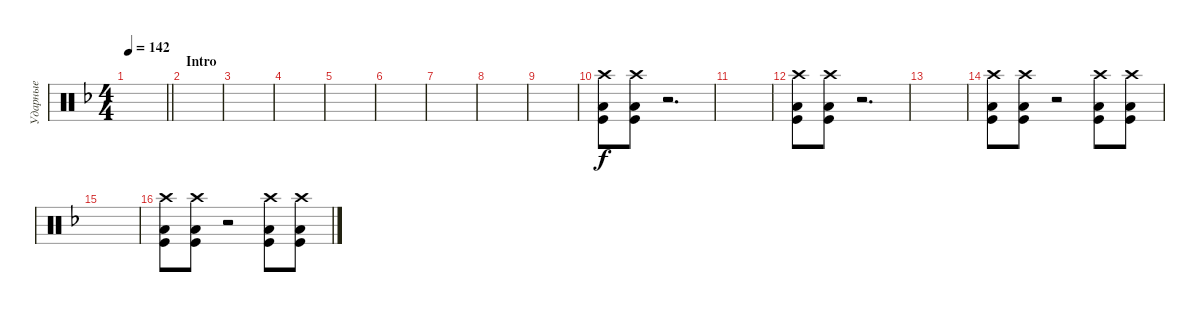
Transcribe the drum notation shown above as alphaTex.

\track ("Ударные" "Ударные") {instrument percussion}
\staff {score}
\articulation defaults
\ts (4 4)
\tempo 142
\clef neutral
\barLineRight lightlight
\ks dminor
|
\section ("" "Intro")
|
|
|
|
|
|
|
|
("Kick (hit)" "Low Floor Tom (hit)" "Crash high (hit)").8 ("Kick (hit)" "Low Floor Tom (hit)" "Crash high (hit)").8 r.2{d} |
|
("Kick (hit)" "Low Floor Tom (hit)" "Crash high (hit)").8 ("Kick (hit)" "Low Floor Tom (hit)" "Crash high (hit)").8 r.2{d} |
|
("Kick (hit)" "Low Floor Tom (hit)" "Crash high (hit)").8 ("Kick (hit)" "Low Floor Tom (hit)" "Crash high (hit)").8 r.2 ("Kick (hit)" "Low Floor Tom (hit)" "Crash high (hit)").8 ("Kick (hit)" "Low Floor Tom (hit)" "Crash high (hit)").8 |
|
("Kick (hit)" "Low Floor Tom (hit)" "Crash high (hit)").8 ("Kick (hit)" "Low Floor Tom (hit)" "Crash high (hit)").8 r.2 ("Kick (hit)" "Low Floor Tom (hit)" "Crash high (hit)").8 ("Kick (hit)" "Low Floor Tom (hit)" "Crash high (hit)").8
